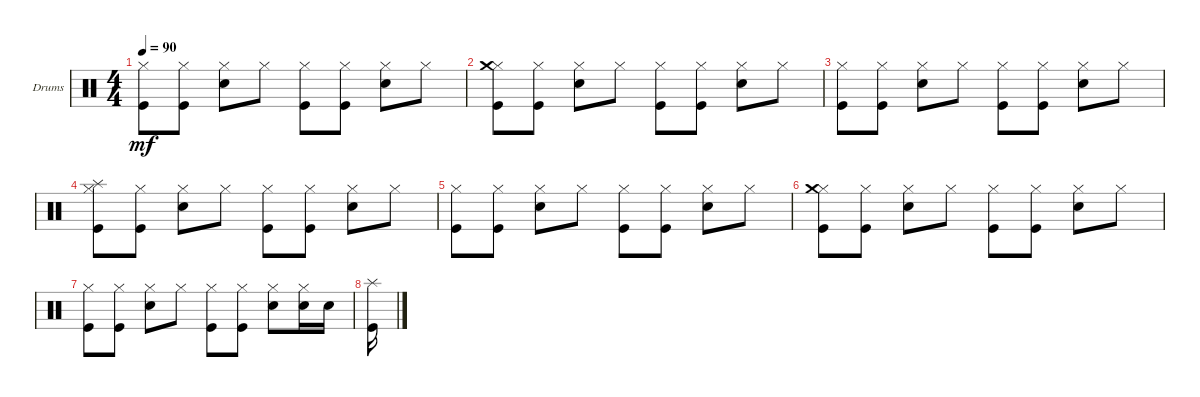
\defaultSystemsLayout 4
\bracketExtendMode groupsimilarinstruments
\firstSystemTrackNameOrientation horizontal
\otherSystemsTrackNameOrientation horizontal
\track ("Drumkit" "Drums") {instrument percussion}
\staff {score}
\articulation defaults
\ts (4 4)
\tempo 90
\clef neutral
\ks c
("Kick (hit)" "Hi-Hat (closed)").8{dy mf} ("Kick (hit)" "Hi-Hat (closed)").8 ("Hi-Hat (closed)" "Snare (hit) 2").8 "Hi-Hat (closed)".8 ("Hi-Hat (closed)" "Kick (hit)").8 ("Hi-Hat (closed)" "Kick (hit)").8 ("Hi-Hat (closed)" "Snare (hit) 2").8 "Hi-Hat (closed)".8 |
("Kick (hit)" "Hi-Hat (closed)" "Crash medium (hit)").8 ("Kick (hit)" "Hi-Hat (closed)").8 ("Hi-Hat (closed)" "Snare (hit) 2").8 "Hi-Hat (closed)".8 ("Hi-Hat (closed)" "Kick (hit)").8 ("Hi-Hat (closed)" "Kick (hit)").8 ("Hi-Hat (closed)" "Snare (hit) 2").8 "Hi-Hat (closed)".8 |
("Kick (hit)" "Hi-Hat (closed)").8 ("Kick (hit)" "Hi-Hat (closed)").8 ("Hi-Hat (closed)" "Snare (hit) 2").8 "Hi-Hat (closed)".8 ("Hi-Hat (closed)" "Kick (hit)").8 ("Hi-Hat (closed)" "Kick (hit)").8 ("Hi-Hat (closed)" "Snare (hit) 2").8 "Hi-Hat (closed)".8 |
("Kick (hit)" "Hi-Hat (closed)" "Splash (hit)").8 ("Kick (hit)" "Hi-Hat (closed)").8 ("Hi-Hat (closed)" "Snare (hit) 2").8 "Hi-Hat (closed)".8 ("Hi-Hat (closed)" "Kick (hit)").8 ("Hi-Hat (closed)" "Kick (hit)").8 ("Hi-Hat (closed)" "Snare (hit) 2").8 "Hi-Hat (closed)".8 |
("Kick (hit)" "Hi-Hat (closed)").8 ("Kick (hit)" "Hi-Hat (closed)").8 ("Hi-Hat (closed)" "Snare (hit) 2").8 "Hi-Hat (closed)".8 ("Hi-Hat (closed)" "Kick (hit)").8 ("Hi-Hat (closed)" "Kick (hit)").8 ("Hi-Hat (closed)" "Snare (hit) 2").8 "Hi-Hat (closed)".8 |
("Kick (hit)" "Hi-Hat (closed)" "Crash medium (hit)").8 ("Kick (hit)" "Hi-Hat (closed)").8 ("Hi-Hat (closed)" "Snare (hit) 2").8 "Hi-Hat (closed)".8 ("Hi-Hat (closed)" "Kick (hit)").8 ("Hi-Hat (closed)" "Kick (hit)").8 ("Hi-Hat (closed)" "Snare (hit) 2").8 "Hi-Hat (closed)".8 |
("Kick (hit)" "Hi-Hat (closed)").8 ("Kick (hit)" "Hi-Hat (closed)").8 ("Hi-Hat (closed)" "Snare (hit) 2").8 "Hi-Hat (closed)".8 ("Hi-Hat (closed)" "Kick (hit)").8 ("Hi-Hat (closed)" "Kick (hit)").8 ("Hi-Hat (closed)" "Snare (hit) 2").8 ("Hi-Hat (closed)" "Snare (hit) 2").16 "Snare (hit) 2".16 |
("Splash (hit)" "Kick (hit)").16
